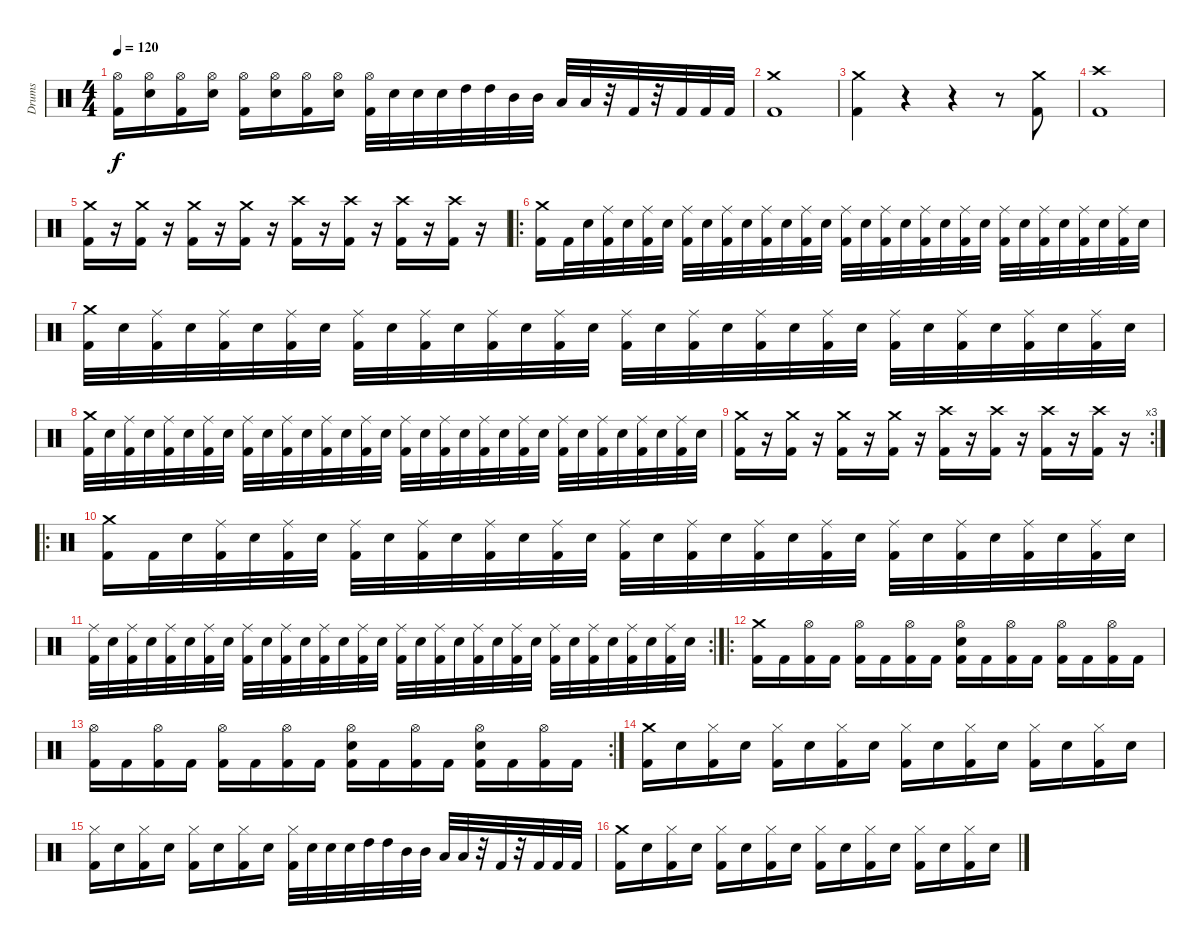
\track ("Drums" "Drums") {instrument percussion}
\staff {score}
\articulation defaults
\ts (4 4)
\tempo 120
\clef neutral
\ks c
("Hi-Hat (open)" "Kick (hit) 2").16{dy f} ("Hi-Hat (open)" "Electric Snare (hit)").16 ("Hi-Hat (open)" "Kick (hit) 2").16 ("Hi-Hat (open)" "Electric Snare (hit)").16 ("Hi-Hat (open)" "Kick (hit) 2").16 ("Hi-Hat (open)" "Electric Snare (hit)").16 ("Hi-Hat (open)" "Kick (hit) 2").16 ("Hi-Hat (open)" "Electric Snare (hit)").16 ("Hi-Hat (open)" "Kick (hit) 2").32 "Electric Snare (hit)".32 "Electric Snare (hit)".32 "Electric Snare (hit)".32 "High Tom (hit)".32 "High Tom (hit)".32 "Mid Tom (hit)".32 "Mid Tom (hit)".32 "Low Tom (hit)".32 "Low Tom (hit)".32 r.32 "Kick (hit) 2".32 r.32 "Kick (hit) 2".32 "Kick (hit) 2".32 "Kick (hit) 2".32 |
("Crash medium (hit)" "Kick (hit) 2").1 |
("Crash medium (hit)" "Kick (hit) 2").4 r.4 r.4 r.8 ("Crash medium (hit)" "Kick (hit) 2").8 |
("Crash high (hit)" "Kick (hit) 2").1 |
("Crash medium (hit)" "Kick (hit) 2").16 r.16 ("Crash medium (hit)" "Kick (hit) 2").16 r.16 ("Crash medium (hit)" "Kick (hit) 2").16 r.16 ("Crash medium (hit)" "Kick (hit) 2").16 r.16 ("Crash high (hit)" "Kick (hit) 2").16 r.16 ("Crash high (hit)" "Kick (hit) 2").16 r.16 ("Crash high (hit)" "Kick (hit) 2").16 r.16 ("Crash high (hit)" "Kick (hit) 2").16 r.16 |
\ro
("Kick (hit) 2" "Crash medium (hit)").16 "Kick (hit) 2".32 "Electric Snare (hit)".32 ("Kick (hit) 2" "Ride (middle)").32 "Electric Snare (hit)".32 ("Kick (hit) 2" "Ride (middle)").32 "Electric Snare (hit)".32 ("Kick (hit) 2" "Ride (middle)").32 "Electric Snare (hit)".32 ("Kick (hit) 2" "Ride (middle)").32 "Electric Snare (hit)".32 ("Kick (hit) 2" "Ride (middle)").32 "Electric Snare (hit)".32 ("Kick (hit) 2" "Ride (middle)").32 "Electric Snare (hit)".32 ("Kick (hit) 2" "Ride (middle)").32 "Electric Snare (hit)".32 ("Kick (hit) 2" "Ride (middle)").32 "Electric Snare (hit)".32 ("Kick (hit) 2" "Ride (middle)").32 "Electric Snare (hit)".32 ("Kick (hit) 2" "Ride (middle)").32 "Electric Snare (hit)".32 ("Kick (hit) 2" "Ride (middle)").32 "Electric Snare (hit)".32 ("Kick (hit) 2" "Ride (middle)").32 "Electric Snare (hit)".32 ("Kick (hit) 2" "Ride (middle)").32 "Electric Snare (hit)".32 ("Kick (hit) 2" "Ride (middle)").32 "Electric Snare (hit)".32 |
("Kick (hit) 2" "Crash medium (hit)").32 "Electric Snare (hit)".32 ("Kick (hit) 2" "Ride (middle)").32 "Electric Snare (hit)".32 ("Kick (hit) 2" "Ride (middle)").32 "Electric Snare (hit)".32 ("Kick (hit) 2" "Ride (middle)").32 "Electric Snare (hit)".32 ("Kick (hit) 2" "Ride (middle)").32 "Electric Snare (hit)".32 ("Kick (hit) 2" "Ride (middle)").32 "Electric Snare (hit)".32 ("Kick (hit) 2" "Ride (middle)").32 "Electric Snare (hit)".32 ("Kick (hit) 2" "Ride (middle)").32 "Electric Snare (hit)".32 ("Kick (hit) 2" "Ride (middle)").32 "Electric Snare (hit)".32 ("Kick (hit) 2" "Ride (middle)").32 "Electric Snare (hit)".32 ("Kick (hit) 2" "Ride (middle)").32 "Electric Snare (hit)".32 ("Kick (hit) 2" "Ride (middle)").32 "Electric Snare (hit)".32 ("Kick (hit) 2" "Ride (middle)").32 "Electric Snare (hit)".32 ("Kick (hit) 2" "Ride (middle)").32 "Electric Snare (hit)".32 ("Kick (hit) 2" "Ride (middle)").32 "Electric Snare (hit)".32 ("Kick (hit) 2" "Ride (middle)").32 "Electric Snare (hit)".32 |
("Kick (hit) 2" "Crash medium (hit)").32 "Electric Snare (hit)".32 ("Kick (hit) 2" "Ride (middle)").32 "Electric Snare (hit)".32 ("Kick (hit) 2" "Ride (middle)").32 "Electric Snare (hit)".32 ("Kick (hit) 2" "Ride (middle)").32 "Electric Snare (hit)".32 ("Kick (hit) 2" "Ride (middle)").32 "Electric Snare (hit)".32 ("Kick (hit) 2" "Ride (middle)").32 "Electric Snare (hit)".32 ("Kick (hit) 2" "Ride (middle)").32 "Electric Snare (hit)".32 ("Kick (hit) 2" "Ride (middle)").32 "Electric Snare (hit)".32 ("Kick (hit) 2" "Ride (middle)").32 "Electric Snare (hit)".32 ("Kick (hit) 2" "Ride (middle)").32 "Electric Snare (hit)".32 ("Kick (hit) 2" "Ride (middle)").32 "Electric Snare (hit)".32 ("Kick (hit) 2" "Ride (middle)").32 "Electric Snare (hit)".32 ("Kick (hit) 2" "Ride (middle)").32 "Electric Snare (hit)".32 ("Kick (hit) 2" "Ride (middle)").32 "Electric Snare (hit)".32 ("Kick (hit) 2" "Ride (middle)").32 "Electric Snare (hit)".32 ("Kick (hit) 2" "Ride (middle)").32 "Electric Snare (hit)".32 |
\rc 3
("Crash medium (hit)" "Kick (hit) 2").16 r.16 ("Crash medium (hit)" "Kick (hit) 2").16 r.16 ("Crash medium (hit)" "Kick (hit) 2").16 r.16 ("Crash medium (hit)" "Kick (hit) 2").16 r.16 ("Crash high (hit)" "Kick (hit) 2").16 r.16 ("Crash high (hit)" "Kick (hit) 2").16 r.16 ("Crash high (hit)" "Kick (hit) 2").16 r.16 ("Crash high (hit)" "Kick (hit) 2").16 r.16 |
\ro
("Kick (hit) 2" "Crash medium (hit)").16 "Kick (hit) 2".32 "Electric Snare (hit)".32 ("Kick (hit) 2" "Ride (middle)").32 "Electric Snare (hit)".32 ("Kick (hit) 2" "Ride (middle)").32 "Electric Snare (hit)".32 ("Kick (hit) 2" "Ride (middle)").32 "Electric Snare (hit)".32 ("Kick (hit) 2" "Ride (middle)").32 "Electric Snare (hit)".32 ("Kick (hit) 2" "Ride (middle)").32 "Electric Snare (hit)".32 ("Kick (hit) 2" "Ride (middle)").32 "Electric Snare (hit)".32 ("Kick (hit) 2" "Ride (middle)").32 "Electric Snare (hit)".32 ("Kick (hit) 2" "Ride (middle)").32 "Electric Snare (hit)".32 ("Kick (hit) 2" "Ride (middle)").32 "Electric Snare (hit)".32 ("Kick (hit) 2" "Ride (middle)").32 "Electric Snare (hit)".32 ("Kick (hit) 2" "Ride (middle)").32 "Electric Snare (hit)".32 ("Kick (hit) 2" "Ride (middle)").32 "Electric Snare (hit)".32 ("Kick (hit) 2" "Ride (middle)").32 "Electric Snare (hit)".32 ("Kick (hit) 2" "Ride (middle)").32 "Electric Snare (hit)".32 |
\rc 2
("Kick (hit) 2" "Ride (middle)").32 "Electric Snare (hit)".32 ("Kick (hit) 2" "Ride (middle)").32 "Electric Snare (hit)".32 ("Kick (hit) 2" "Ride (middle)").32 "Electric Snare (hit)".32 ("Kick (hit) 2" "Ride (middle)").32 "Electric Snare (hit)".32 ("Kick (hit) 2" "Ride (middle)").32 "Electric Snare (hit)".32 ("Kick (hit) 2" "Ride (middle)").32 "Electric Snare (hit)".32 ("Kick (hit) 2" "Ride (middle)").32 "Electric Snare (hit)".32 ("Kick (hit) 2" "Ride (middle)").32 "Electric Snare (hit)".32 ("Kick (hit) 2" "Ride (middle)").32 "Electric Snare (hit)".32 ("Kick (hit) 2" "Ride (middle)").32 "Electric Snare (hit)".32 ("Kick (hit) 2" "Ride (middle)").32 "Electric Snare (hit)".32 ("Kick (hit) 2" "Ride (middle)").32 "Electric Snare (hit)".32 ("Kick (hit) 2" "Ride (middle)").32 "Electric Snare (hit)".32 ("Kick (hit) 2" "Ride (middle)").32 "Electric Snare (hit)".32 ("Kick (hit) 2" "Ride (middle)").32 "Electric Snare (hit)".32 ("Kick (hit) 2" "Ride (middle)").32 "Electric Snare (hit)".32 |
\ro
("Crash medium (hit)" "Kick (hit) 2").16 "Kick (hit) 2".16 ("Hi-Hat (open)" "Kick (hit) 2").16 "Kick (hit) 2".16 ("Hi-Hat (open)" "Kick (hit) 2").16 "Kick (hit) 2".16 ("Hi-Hat (open)" "Kick (hit) 2").16 "Kick (hit) 2".16 ("Hi-Hat (open)" "Electric Snare (hit)" "Kick (hit) 2").16 "Kick (hit) 2".16 ("Hi-Hat (open)" "Kick (hit) 2").16 "Kick (hit) 2".16 ("Hi-Hat (open)" "Kick (hit) 2").16 "Kick (hit) 2".16 ("Hi-Hat (open)" "Kick (hit) 2").16 "Kick (hit) 2".16 |
\rc 2
("Hi-Hat (open)" "Kick (hit) 2").16 "Kick (hit) 2".16 ("Hi-Hat (open)" "Kick (hit) 2").16 "Kick (hit) 2".16 ("Hi-Hat (open)" "Kick (hit) 2").16 "Kick (hit) 2".16 ("Hi-Hat (open)" "Kick (hit) 2").16 "Kick (hit) 2".16 ("Hi-Hat (open)" "Electric Snare (hit)" "Kick (hit) 2").16 "Kick (hit) 2".16 ("Hi-Hat (open)" "Kick (hit) 2").16 "Kick (hit) 2".16 ("Hi-Hat (open)" "Electric Snare (hit)" "Kick (hit) 2").16 "Kick (hit) 2".16 ("Hi-Hat (open)" "Kick (hit) 2").16 "Kick (hit) 2".16 |
("Crash medium (hit)" "Kick (hit) 2").16 "Electric Snare (hit)".16 ("Hi-Hat (closed)" "Kick (hit) 2").16 "Electric Snare (hit)".16 ("Hi-Hat (closed)" "Kick (hit) 2").16 "Electric Snare (hit)".16 ("Hi-Hat (closed)" "Kick (hit) 2").16 "Electric Snare (hit)".16 ("Hi-Hat (closed)" "Kick (hit) 2").16 "Electric Snare (hit)".16 ("Hi-Hat (closed)" "Kick (hit) 2").16 "Electric Snare (hit)".16 ("Hi-Hat (closed)" "Kick (hit) 2").16 "Electric Snare (hit)".16 ("Hi-Hat (closed)" "Kick (hit) 2").16 "Electric Snare (hit)".16 |
("Hi-Hat (closed)" "Kick (hit) 2").16 "Electric Snare (hit)".16 ("Hi-Hat (closed)" "Kick (hit) 2").16 "Electric Snare (hit)".16 ("Hi-Hat (closed)" "Kick (hit) 2").16 "Electric Snare (hit)".16 ("Hi-Hat (closed)" "Kick (hit) 2").16 "Electric Snare (hit)".16 ("Hi-Hat (closed)" "Kick (hit) 2").32 "Electric Snare (hit)".32 "Electric Snare (hit)".32 "Electric Snare (hit)".32 "High Tom (hit)".32 "High Tom (hit)".32 "Mid Tom (hit)".32 "Mid Tom (hit)".32 "Low Tom (hit)".32 "Low Tom (hit)".32 r.32 "Kick (hit) 2".32 r.32 "Kick (hit) 2".32 "Kick (hit) 2".32 "Kick (hit) 2".32 |
("Crash medium (hit)" "Kick (hit) 2").16 "Electric Snare (hit)".16 ("Hi-Hat (closed)" "Kick (hit) 2").16 "Electric Snare (hit)".16 ("Hi-Hat (closed)" "Kick (hit) 2").16 "Electric Snare (hit)".16 ("Hi-Hat (closed)" "Kick (hit) 2").16 "Electric Snare (hit)".16 ("Hi-Hat (closed)" "Kick (hit) 2").16 "Electric Snare (hit)".16 ("Hi-Hat (closed)" "Kick (hit) 2").16 "Electric Snare (hit)".16 ("Hi-Hat (closed)" "Kick (hit) 2").16 "Electric Snare (hit)".16 ("Hi-Hat (closed)" "Kick (hit) 2").16 "Electric Snare (hit)".16
